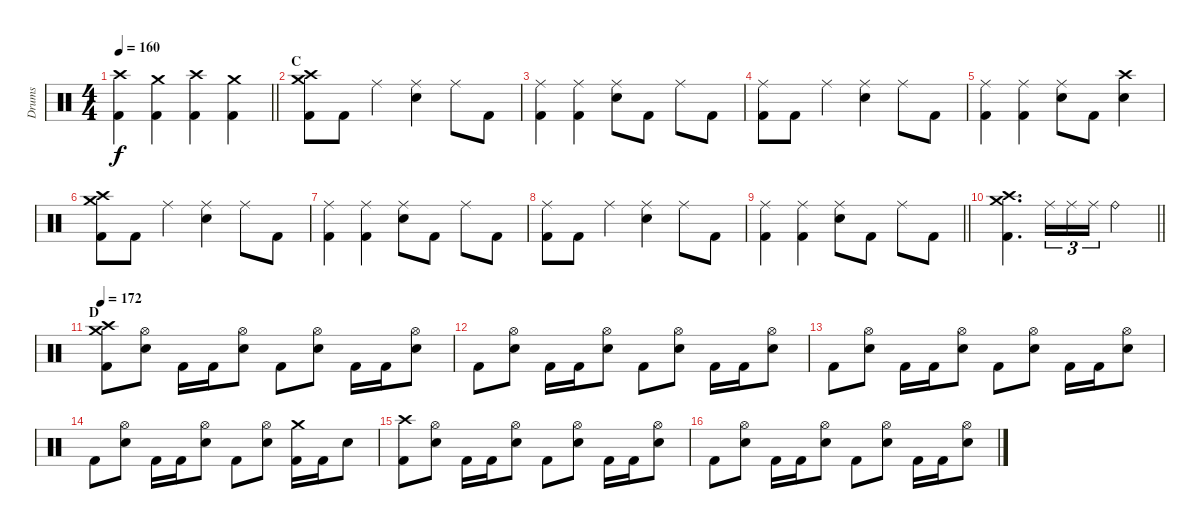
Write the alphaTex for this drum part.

\track ("Drums" "Drums") {instrument percussion}
\staff {score}
\articulation defaults
\ts (4 4)
\tempo 160
\clef neutral
\barLineRight lightlight
\ks c
("Crash high (hit)" "Kick (hit) 2").4{dy f} ("Crash medium (hit)" "Kick (hit) 2").4 ("Crash high (hit)" "Kick (hit) 2").4 ("Crash medium (hit)" "Kick (hit) 2").4 |
\section ("" "C")
("Crash medium (hit)" "Crash high (hit)" "Kick (hit) 2").8 "Kick (hit) 2".8 "Ride (middle)".4 ("Ride (middle)" "Electric Snare (hit)").4 "Ride (middle)".8 "Kick (hit) 2".8 |
("Ride (middle)" "Kick (hit) 2").4 ("Ride (middle)" "Kick (hit) 2").4 ("Ride (middle)" "Electric Snare (hit)").8 "Kick (hit) 2".8 "Ride (middle)".8 "Kick (hit) 2".8 |
("Ride (middle)" "Kick (hit) 2").8 "Kick (hit) 2".8 "Ride (middle)".4 ("Ride (middle)" "Electric Snare (hit)").4 "Ride (middle)".8 "Kick (hit) 2".8 |
("Ride (middle)" "Kick (hit) 2").4 ("Ride (middle)" "Kick (hit) 2").4 ("Ride (middle)" "Electric Snare (hit)").8 "Kick (hit) 2".8 ("Crash high (hit)" "Electric Snare (hit)").4 |
("Crash medium (hit)" "Crash high (hit)" "Kick (hit) 2").8 "Kick (hit) 2".8 "Ride (middle)".4 ("Ride (middle)" "Electric Snare (hit)").4 "Ride (middle)".8 "Kick (hit) 2".8 |
("Ride (middle)" "Kick (hit) 2").4 ("Ride (middle)" "Kick (hit) 2").4 ("Ride (middle)" "Electric Snare (hit)").8 "Kick (hit) 2".8 "Ride (middle)".8 "Kick (hit) 2".8 |
("Ride (middle)" "Kick (hit) 2").8 "Kick (hit) 2".8 "Ride (middle)".4 ("Ride (middle)" "Electric Snare (hit)").4 "Ride (middle)".8 "Kick (hit) 2".8 |
\barLineRight lightlight
("Ride (middle)" "Kick (hit) 2").4 ("Ride (middle)" "Kick (hit) 2").4 ("Ride (middle)" "Electric Snare (hit)").8 "Kick (hit) 2".8 "Ride (middle)".8 "Kick (hit) 2".8 |
\section ("" "")
\barLineRight lightlight
("Crash medium (hit)" "Crash high (hit)" "Kick (hit) 2").4{d} "Ride (middle)".16{tu (3 2)} "Ride (middle)".16{tu (3 2)} "Ride (middle)".16{tu (3 2)} "Ride (bell)".2 |
\section ("" "D")
\tempo 172
("Crash medium (hit)" "Crash high (hit)" "Kick (hit) 2").8 ("Hi-Hat (open)" "Electric Snare (hit)").8 "Kick (hit) 2".16 "Kick (hit) 2".16 ("Hi-Hat (open)" "Electric Snare (hit)").8 "Kick (hit) 2".8 ("Hi-Hat (open)" "Electric Snare (hit)").8 "Kick (hit) 2".16 "Kick (hit) 2".16 ("Hi-Hat (open)" "Electric Snare (hit)").8 |
"Kick (hit) 2".8 ("Hi-Hat (open)" "Electric Snare (hit)").8 "Kick (hit) 2".16 "Kick (hit) 2".16 ("Hi-Hat (open)" "Electric Snare (hit)").8 "Kick (hit) 2".8 ("Hi-Hat (open)" "Electric Snare (hit)").8 "Kick (hit) 2".16 "Kick (hit) 2".16 ("Hi-Hat (open)" "Electric Snare (hit)").8 |
"Kick (hit) 2".8 ("Hi-Hat (open)" "Electric Snare (hit)").8 "Kick (hit) 2".16 "Kick (hit) 2".16 ("Hi-Hat (open)" "Electric Snare (hit)").8 "Kick (hit) 2".8 ("Hi-Hat (open)" "Electric Snare (hit)").8 "Kick (hit) 2".16 "Kick (hit) 2".16 ("Hi-Hat (open)" "Electric Snare (hit)").8 |
"Kick (hit) 2".8 ("Hi-Hat (open)" "Electric Snare (hit)").8 "Kick (hit) 2".16 "Kick (hit) 2".16 ("Hi-Hat (open)" "Electric Snare (hit)").8 "Kick (hit) 2".8 ("Hi-Hat (open)" "Electric Snare (hit)").8 ("Crash medium (hit)" "Kick (hit) 2").16 "Kick (hit) 2".16 "Electric Snare (hit)".8 |
("Crash high (hit)" "Kick (hit) 2").8 ("Hi-Hat (open)" "Electric Snare (hit)").8 "Kick (hit) 2".16 "Kick (hit) 2".16 ("Hi-Hat (open)" "Electric Snare (hit)").8 "Kick (hit) 2".8 ("Hi-Hat (open)" "Electric Snare (hit)").8 "Kick (hit) 2".16 "Kick (hit) 2".16 ("Hi-Hat (open)" "Electric Snare (hit)").8 |
"Kick (hit) 2".8 ("Hi-Hat (open)" "Electric Snare (hit)").8 "Kick (hit) 2".16 "Kick (hit) 2".16 ("Hi-Hat (open)" "Electric Snare (hit)").8 "Kick (hit) 2".8 ("Hi-Hat (open)" "Electric Snare (hit)").8 "Kick (hit) 2".16 "Kick (hit) 2".16 ("Hi-Hat (open)" "Electric Snare (hit)").8
